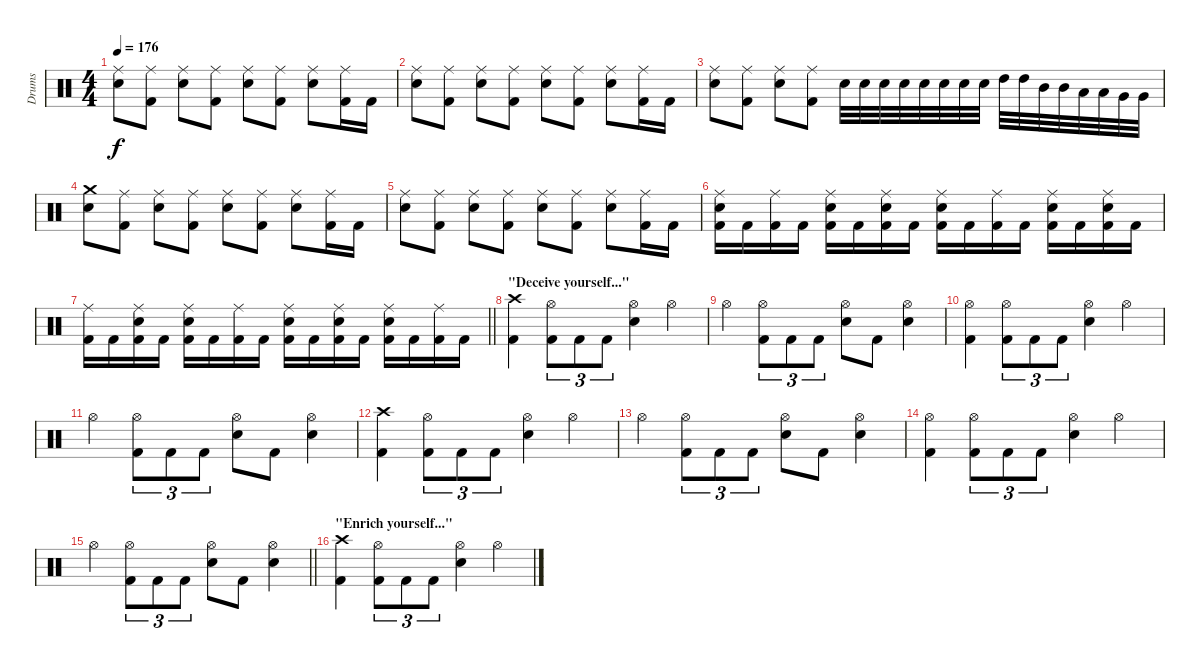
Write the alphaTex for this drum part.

\track ("Drums" "Drums") {instrument percussion}
\staff {score}
\articulation defaults
\ts (4 4)
\tempo 176
\clef neutral
\ks c
("Ride (middle)" "Snare (hit) 2").8{dy f} ("Ride (middle)" "Kick (hit) 2").8 ("Ride (middle)" "Snare (hit) 2").8 ("Ride (middle)" "Kick (hit) 2").8 ("Ride (middle)" "Snare (hit) 2").8 ("Ride (middle)" "Kick (hit) 2").8 ("Ride (middle)" "Snare (hit) 2").8 ("Ride (middle)" "Kick (hit) 2").16 "Kick (hit) 2".16 |
("Ride (middle)" "Snare (hit) 2").8 ("Ride (middle)" "Kick (hit) 2").8 ("Ride (middle)" "Snare (hit) 2").8 ("Ride (middle)" "Kick (hit) 2").8 ("Ride (middle)" "Snare (hit) 2").8 ("Ride (middle)" "Kick (hit) 2").8 ("Ride (middle)" "Snare (hit) 2").8 ("Ride (middle)" "Kick (hit) 2").16 "Kick (hit) 2".16 |
("Ride (middle)" "Snare (hit) 2").8 ("Ride (middle)" "Kick (hit) 2").8 ("Ride (middle)" "Snare (hit) 2").8 ("Ride (middle)" "Kick (hit) 2").8 "Snare (hit) 2".32 "Snare (hit) 2".32 "Snare (hit) 2".32 "Snare (hit) 2".32 "Snare (hit) 2".32 "Snare (hit) 2".32 "Snare (hit) 2".32 "Snare (hit) 2".32 "High Tom (hit)".32 "High Tom (hit)".32 "Mid Tom (hit)".32 "Mid Tom (hit)".32 "Low Tom (hit)".32 "Low Tom (hit)".32 "Very Low Tom (hit)".32 "Very Low Tom (hit)".32 |
("Crash medium (hit)" "Snare (hit) 2").8 ("Ride (middle)" "Kick (hit) 2").8 ("Ride (middle)" "Snare (hit) 2").8 ("Ride (middle)" "Kick (hit) 2").8 ("Ride (middle)" "Snare (hit) 2").8 ("Ride (middle)" "Kick (hit) 2").8 ("Ride (middle)" "Snare (hit) 2").8 ("Ride (middle)" "Kick (hit) 2").16 "Kick (hit) 2".16 |
("Ride (middle)" "Snare (hit) 2").8 ("Ride (middle)" "Kick (hit) 2").8 ("Ride (middle)" "Snare (hit) 2").8 ("Ride (middle)" "Kick (hit) 2").8 ("Ride (middle)" "Snare (hit) 2").8 ("Ride (middle)" "Kick (hit) 2").8 ("Ride (middle)" "Snare (hit) 2").8 ("Ride (middle)" "Kick (hit) 2").16 "Kick (hit) 2".16 |
("Ride (middle)" "Snare (hit) 2" "Kick (hit) 2").16 "Kick (hit) 2".16 ("Ride (middle)" "Kick (hit) 2").16 "Kick (hit) 2".16 ("Ride (middle)" "Snare (hit) 2" "Kick (hit) 2").16 "Kick (hit) 2".16 ("Ride (middle)" "Snare (hit) 2" "Kick (hit) 2").16 "Kick (hit) 2".16 ("Ride (middle)" "Snare (hit) 2" "Kick (hit) 2").16 "Kick (hit) 2".16 ("Ride (middle)" "Kick (hit) 2").16 "Kick (hit) 2".16 ("Ride (middle)" "Snare (hit) 2" "Kick (hit) 2").16 "Kick (hit) 2".16 ("Ride (middle)" "Snare (hit) 2" "Kick (hit) 2").16 "Kick (hit) 2".16 |
\barLineRight lightlight
("Ride (middle)" "Kick (hit) 2").16 "Kick (hit) 2".16 ("Ride (middle)" "Snare (hit) 2" "Kick (hit) 2").16 "Kick (hit) 2".16 ("Ride (middle)" "Snare (hit) 2" "Kick (hit) 2").16 "Kick (hit) 2".16 ("Ride (middle)" "Kick (hit) 2").16 "Kick (hit) 2".16 ("Ride (middle)" "Snare (hit) 2" "Kick (hit) 2").16 "Kick (hit) 2".16 ("Ride (middle)" "Snare (hit) 2" "Kick (hit) 2").16 "Kick (hit) 2".16 ("Ride (middle)" "Snare (hit) 2" "Kick (hit) 2").16 "Kick (hit) 2".16 ("Ride (middle)" "Kick (hit) 2").16 "Kick (hit) 2".16 |
\section ("" "\"Deceive yourself...\"")
("Crash high (hit)" "Kick (hit) 2").4 ("Hi-Hat (open)" "Kick (hit) 2").8{tu (3 2)} "Kick (hit) 2".8{tu (3 2)} "Kick (hit) 2".8{tu (3 2)} ("Hi-Hat (open)" "Snare (hit) 2").4 "Hi-Hat (open)".4 |
"Hi-Hat (open)".4 ("Hi-Hat (open)" "Kick (hit) 2").8{tu (3 2)} "Kick (hit) 2".8{tu (3 2)} "Kick (hit) 2".8{tu (3 2)} ("Hi-Hat (open)" "Snare (hit) 2").8 "Kick (hit) 2".8 ("Hi-Hat (open)" "Snare (hit) 2").4 |
("Hi-Hat (open)" "Kick (hit) 2").4 ("Hi-Hat (open)" "Kick (hit) 2").8{tu (3 2)} "Kick (hit) 2".8{tu (3 2)} "Kick (hit) 2".8{tu (3 2)} ("Hi-Hat (open)" "Snare (hit) 2").4 "Hi-Hat (open)".4 |
"Hi-Hat (open)".4 ("Hi-Hat (open)" "Kick (hit) 2").8{tu (3 2)} "Kick (hit) 2".8{tu (3 2)} "Kick (hit) 2".8{tu (3 2)} ("Hi-Hat (open)" "Snare (hit) 2").8 "Kick (hit) 2".8 ("Hi-Hat (open)" "Snare (hit) 2").4 |
("Crash high (hit)" "Kick (hit) 2").4 ("Hi-Hat (open)" "Kick (hit) 2").8{tu (3 2)} "Kick (hit) 2".8{tu (3 2)} "Kick (hit) 2".8{tu (3 2)} ("Hi-Hat (open)" "Snare (hit) 2").4 "Hi-Hat (open)".4 |
"Hi-Hat (open)".4 ("Hi-Hat (open)" "Kick (hit) 2").8{tu (3 2)} "Kick (hit) 2".8{tu (3 2)} "Kick (hit) 2".8{tu (3 2)} ("Hi-Hat (open)" "Snare (hit) 2").8 "Kick (hit) 2".8 ("Hi-Hat (open)" "Snare (hit) 2").4 |
("Hi-Hat (open)" "Kick (hit) 2").4 ("Hi-Hat (open)" "Kick (hit) 2").8{tu (3 2)} "Kick (hit) 2".8{tu (3 2)} "Kick (hit) 2".8{tu (3 2)} ("Hi-Hat (open)" "Snare (hit) 2").4 "Hi-Hat (open)".4 |
\barLineRight lightlight "Hi-Hat (open)".4
("Hi-Hat (open)" "Kick (hit) 2").8{tu (3 2)} "Kick (hit) 2".8{tu (3 2)} "Kick (hit) 2".8{tu (3 2)} ("Hi-Hat (open)" "Snare (hit) 2").8 "Kick (hit) 2".8 ("Hi-Hat (open)" "Snare (hit) 2").4 |
\section ("" "\"Enrich yourself...\"")
("Crash high (hit)" "Kick (hit) 2").4 ("Hi-Hat (open)" "Kick (hit) 2").8{tu (3 2)} "Kick (hit) 2".8{tu (3 2)} "Kick (hit) 2".8{tu (3 2)} ("Hi-Hat (open)" "Snare (hit) 2").4 "Hi-Hat (open)".4
